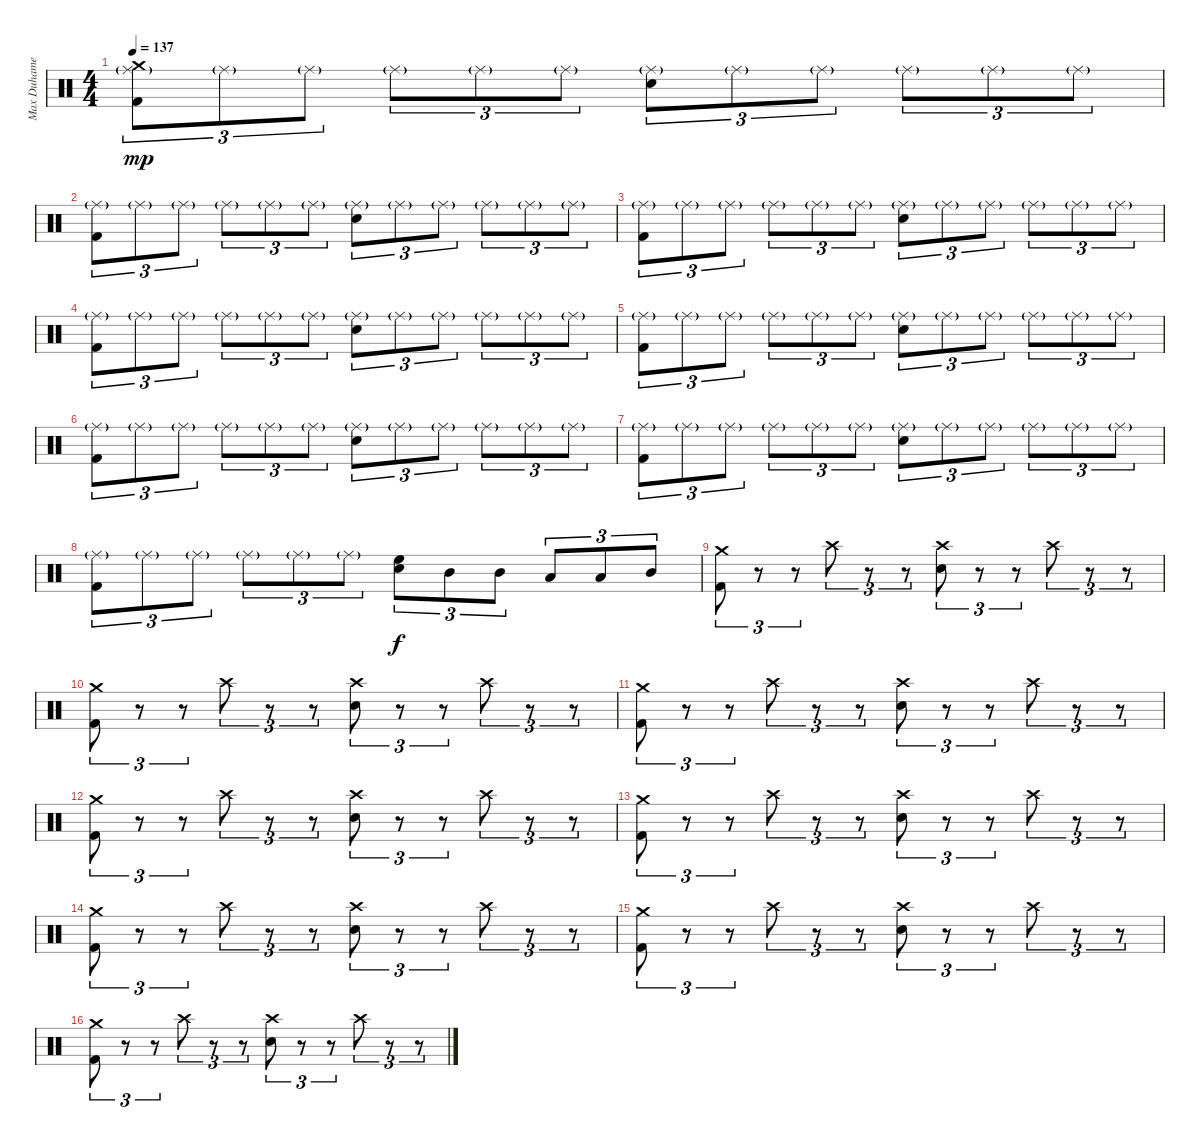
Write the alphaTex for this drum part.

\track ("Max Duhamel (Drums)" "Max Duhame") {instrument percussion}
\staff {score}
\articulation defaults
\ts (4 4)
\tempo 137
\clef neutral
\ks c
("Crash medium (hit)" "Ride (middle)"{g} "Kick (hit) 2").8{tu (3 2) dy mp} "Ride (middle)"{g}.8{tu (3 2)} "Ride (middle)"{g}.8{tu (3 2)} "Ride (middle)"{g}.8{tu (3 2)} "Ride (middle)"{g}.8{tu (3 2)} "Ride (middle)"{g}.8{tu (3 2)} ("Ride (middle)"{g} "Electric Snare (hit)").8{tu (3 2)} "Ride (middle)"{g}.8{tu (3 2)} "Ride (middle)"{g}.8{tu (3 2)} "Ride (middle)"{g}.8{tu (3 2)} "Ride (middle)"{g}.8{tu (3 2)} "Ride (middle)"{g}.8{tu (3 2)} |
("Ride (middle)"{g} "Kick (hit) 2").8{tu (3 2)} "Ride (middle)"{g}.8{tu (3 2)} "Ride (middle)"{g}.8{tu (3 2)} "Ride (middle)"{g}.8{tu (3 2)} "Ride (middle)"{g}.8{tu (3 2)} "Ride (middle)"{g}.8{tu (3 2)} ("Ride (middle)"{g} "Electric Snare (hit)").8{tu (3 2)} "Ride (middle)"{g}.8{tu (3 2)} "Ride (middle)"{g}.8{tu (3 2)} "Ride (middle)"{g}.8{tu (3 2)} "Ride (middle)"{g}.8{tu (3 2)} "Ride (middle)"{g}.8{tu (3 2)} |
("Ride (middle)"{g} "Kick (hit) 2").8{tu (3 2)} "Ride (middle)"{g}.8{tu (3 2)} "Ride (middle)"{g}.8{tu (3 2)} "Ride (middle)"{g}.8{tu (3 2)} "Ride (middle)"{g}.8{tu (3 2)} "Ride (middle)"{g}.8{tu (3 2)} ("Ride (middle)"{g} "Electric Snare (hit)").8{tu (3 2)} "Ride (middle)"{g}.8{tu (3 2)} "Ride (middle)"{g}.8{tu (3 2)} "Ride (middle)"{g}.8{tu (3 2)} "Ride (middle)"{g}.8{tu (3 2)} "Ride (middle)"{g}.8{tu (3 2)} |
("Ride (middle)"{g} "Kick (hit) 2").8{tu (3 2)} "Ride (middle)"{g}.8{tu (3 2)} "Ride (middle)"{g}.8{tu (3 2)} "Ride (middle)"{g}.8{tu (3 2)} "Ride (middle)"{g}.8{tu (3 2)} "Ride (middle)"{g}.8{tu (3 2)} ("Ride (middle)"{g} "Electric Snare (hit)").8{tu (3 2)} "Ride (middle)"{g}.8{tu (3 2)} "Ride (middle)"{g}.8{tu (3 2)} "Ride (middle)"{g}.8{tu (3 2)} "Ride (middle)"{g}.8{tu (3 2)} "Ride (middle)"{g}.8{tu (3 2)} |
("Ride (middle)"{g} "Kick (hit) 2").8{tu (3 2)} "Ride (middle)"{g}.8{tu (3 2)} "Ride (middle)"{g}.8{tu (3 2)} "Ride (middle)"{g}.8{tu (3 2)} "Ride (middle)"{g}.8{tu (3 2)} "Ride (middle)"{g}.8{tu (3 2)} ("Ride (middle)"{g} "Electric Snare (hit)").8{tu (3 2)} "Ride (middle)"{g}.8{tu (3 2)} "Ride (middle)"{g}.8{tu (3 2)} "Ride (middle)"{g}.8{tu (3 2)} "Ride (middle)"{g}.8{tu (3 2)} "Ride (middle)"{g}.8{tu (3 2)} |
("Ride (middle)"{g} "Kick (hit) 2").8{tu (3 2)} "Ride (middle)"{g}.8{tu (3 2)} "Ride (middle)"{g}.8{tu (3 2)} "Ride (middle)"{g}.8{tu (3 2)} "Ride (middle)"{g}.8{tu (3 2)} "Ride (middle)"{g}.8{tu (3 2)} ("Ride (middle)"{g} "Electric Snare (hit)").8{tu (3 2)} "Ride (middle)"{g}.8{tu (3 2)} "Ride (middle)"{g}.8{tu (3 2)} "Ride (middle)"{g}.8{tu (3 2)} "Ride (middle)"{g}.8{tu (3 2)} "Ride (middle)"{g}.8{tu (3 2)} |
("Ride (middle)"{g} "Kick (hit) 2").8{tu (3 2)} "Ride (middle)"{g}.8{tu (3 2)} "Ride (middle)"{g}.8{tu (3 2)} "Ride (middle)"{g}.8{tu (3 2)} "Ride (middle)"{g}.8{tu (3 2)} "Ride (middle)"{g}.8{tu (3 2)} ("Ride (middle)"{g} "Electric Snare (hit)").8{tu (3 2)} "Ride (middle)"{g}.8{tu (3 2)} "Ride (middle)"{g}.8{tu (3 2)} "Ride (middle)"{g}.8{tu (3 2)} "Ride (middle)"{g}.8{tu (3 2)} "Ride (middle)"{g}.8{tu (3 2)} |
("Ride (middle)"{g} "Kick (hit) 2").8{tu (3 2)} "Ride (middle)"{g}.8{tu (3 2)} "Ride (middle)"{g}.8{tu (3 2)} "Ride (middle)"{g}.8{tu (3 2)} "Ride (middle)"{g}.8{tu (3 2)} "Ride (middle)"{g}.8{tu (3 2)} ("High Floor Tom (hit)" "Electric Snare (hit)").8{tu (3 2) dy f} "Mid Tom (hit)".8{tu (3 2)} "Mid Tom (hit)".8{tu (3 2)} "Low Tom (hit)".8{tu (3 2)} "Low Tom (hit)".8{tu (3 2)} "Mid Tom (hit)".8{tu (3 2)} |
("Crash medium (hit)" "Kick (hit) 2").8{tu (3 2)} r.8{tu (3 2)} r.8{tu (3 2)} "Crash high (hit)".8{tu (3 2)} r.8{tu (3 2)} r.8{tu (3 2)} ("Crash high (hit)" "Electric Snare (hit)").8{tu (3 2)} r.8{tu (3 2)} r.8{tu (3 2)} "Crash high (hit)".8{tu (3 2)} r.8{tu (3 2)} r.8{tu (3 2)} |
("Crash medium (hit)" "Kick (hit) 2").8{tu (3 2)} r.8{tu (3 2)} r.8{tu (3 2)} "Crash high (hit)".8{tu (3 2)} r.8{tu (3 2)} r.8{tu (3 2)} ("Crash high (hit)" "Electric Snare (hit)").8{tu (3 2)} r.8{tu (3 2)} r.8{tu (3 2)} "Crash high (hit)".8{tu (3 2)} r.8{tu (3 2)} r.8{tu (3 2)} |
("Crash medium (hit)" "Kick (hit) 2").8{tu (3 2)} r.8{tu (3 2)} r.8{tu (3 2)} "Crash high (hit)".8{tu (3 2)} r.8{tu (3 2)} r.8{tu (3 2)} ("Crash high (hit)" "Electric Snare (hit)").8{tu (3 2)} r.8{tu (3 2)} r.8{tu (3 2)} "Crash high (hit)".8{tu (3 2)} r.8{tu (3 2)} r.8{tu (3 2)} |
("Crash medium (hit)" "Kick (hit) 2").8{tu (3 2)} r.8{tu (3 2)} r.8{tu (3 2)} "Crash high (hit)".8{tu (3 2)} r.8{tu (3 2)} r.8{tu (3 2)} ("Crash high (hit)" "Electric Snare (hit)").8{tu (3 2)} r.8{tu (3 2)} r.8{tu (3 2)} "Crash high (hit)".8{tu (3 2)} r.8{tu (3 2)} r.8{tu (3 2)} |
("Crash medium (hit)" "Kick (hit) 2").8{tu (3 2)} r.8{tu (3 2)} r.8{tu (3 2)} "Crash high (hit)".8{tu (3 2)} r.8{tu (3 2)} r.8{tu (3 2)} ("Crash high (hit)" "Electric Snare (hit)").8{tu (3 2)} r.8{tu (3 2)} r.8{tu (3 2)} "Crash high (hit)".8{tu (3 2)} r.8{tu (3 2)} r.8{tu (3 2)} |
("Crash medium (hit)" "Kick (hit) 2").8{tu (3 2)} r.8{tu (3 2)} r.8{tu (3 2)} "Crash high (hit)".8{tu (3 2)} r.8{tu (3 2)} r.8{tu (3 2)} ("Crash high (hit)" "Electric Snare (hit)").8{tu (3 2)} r.8{tu (3 2)} r.8{tu (3 2)} "Crash high (hit)".8{tu (3 2)} r.8{tu (3 2)} r.8{tu (3 2)} |
("Crash medium (hit)" "Kick (hit) 2").8{tu (3 2)} r.8{tu (3 2)} r.8{tu (3 2)} "Crash high (hit)".8{tu (3 2)} r.8{tu (3 2)} r.8{tu (3 2)} ("Crash high (hit)" "Electric Snare (hit)").8{tu (3 2)} r.8{tu (3 2)} r.8{tu (3 2)} "Crash high (hit)".8{tu (3 2)} r.8{tu (3 2)} r.8{tu (3 2)} |
("Crash medium (hit)" "Kick (hit) 2").8{tu (3 2)} r.8{tu (3 2)} r.8{tu (3 2)} "Crash high (hit)".8{tu (3 2)} r.8{tu (3 2)} r.8{tu (3 2)} ("Crash high (hit)" "Electric Snare (hit)").8{tu (3 2)} r.8{tu (3 2)} r.8{tu (3 2)} "Crash high (hit)".8{tu (3 2)} r.8{tu (3 2)} r.8{tu (3 2)}
